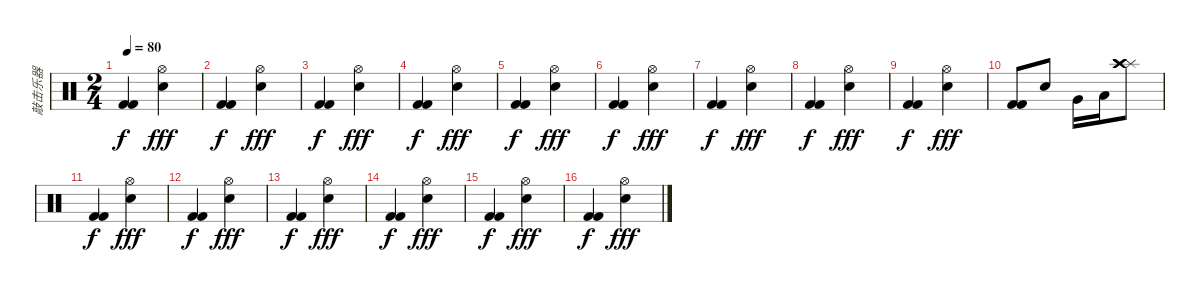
\track ("敲击乐器" "敲击乐器") {instrument percussion}
\staff {score}
\articulation defaults
\ts (2 4)
\tempo 80
\clef neutral
\ks c
("Kick (hit) 2" "Kick (hit) 2").4{dy f} ("Hi-Hat (open)" "Snare (hit) 2").4{dy fff} |
("Kick (hit) 2" "Kick (hit) 2").4{dy f} ("Hi-Hat (open)" "Snare (hit) 2").4{dy fff} |
("Kick (hit) 2" "Kick (hit) 2").4{dy f} ("Hi-Hat (open)" "Snare (hit) 2").4{dy fff} |
("Kick (hit) 2" "Kick (hit) 2").4{dy f} ("Hi-Hat (open)" "Snare (hit) 2").4{dy fff} |
("Kick (hit) 2" "Kick (hit) 2").4{dy f} ("Hi-Hat (open)" "Snare (hit) 2").4{dy fff} |
("Kick (hit) 2" "Kick (hit) 2").4{dy f} ("Hi-Hat (open)" "Snare (hit) 2").4{dy fff} |
("Kick (hit) 2" "Kick (hit) 2").4{dy f} ("Hi-Hat (open)" "Snare (hit) 2").4{dy fff} |
("Kick (hit) 2" "Kick (hit) 2").4{dy f} ("Hi-Hat (open)" "Snare (hit) 2").4{dy fff} |
("Kick (hit) 2" "Kick (hit) 2").4{dy f} ("Hi-Hat (open)" "Snare (hit) 2").4{dy fff} |
("Kick (hit) 2" "Kick (hit) 2").8 "Snare (hit) 2".8 "Very Low Tom (hit)".16 "Low Floor Tom (hit)".16 ("Splash (hit)" "Crash high (hit)" "Crash high (hit)").8 |
("Kick (hit) 2" "Kick (hit) 2").4{dy f} ("Hi-Hat (open)" "Snare (hit) 2").4{dy fff} |
("Kick (hit) 2" "Kick (hit) 2").4{dy f} ("Hi-Hat (open)" "Snare (hit) 2").4{dy fff} |
("Kick (hit) 2" "Kick (hit) 2").4{dy f} ("Hi-Hat (open)" "Snare (hit) 2").4{dy fff} |
("Kick (hit) 2" "Kick (hit) 2").4{dy f} ("Hi-Hat (open)" "Snare (hit) 2").4{dy fff} |
("Kick (hit) 2" "Kick (hit) 2").4{dy f} ("Hi-Hat (open)" "Snare (hit) 2").4{dy fff} |
("Kick (hit) 2" "Kick (hit) 2").4{dy f} ("Hi-Hat (open)" "Snare (hit) 2").4{dy fff}
